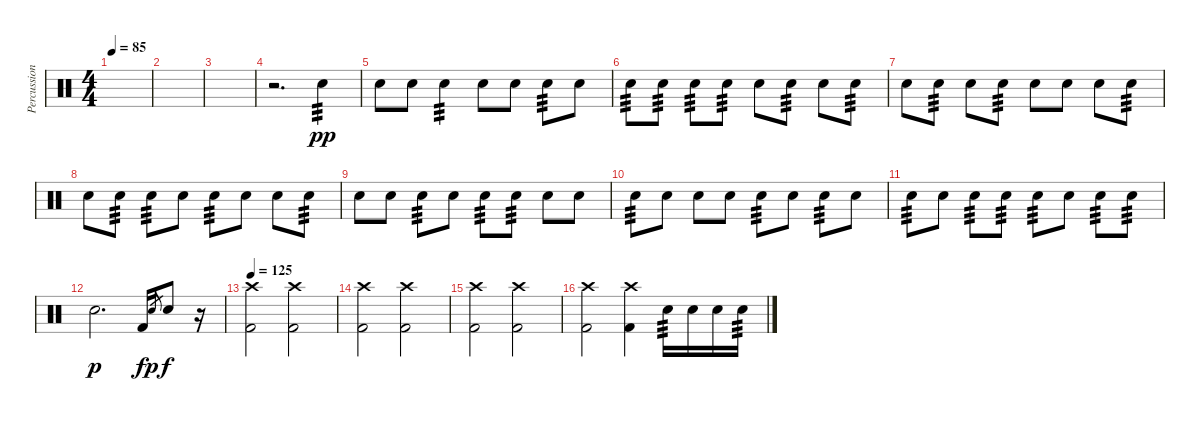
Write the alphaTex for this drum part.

\track ("Percussion" "Percussion") {instrument percussion}
\staff {score}
\articulation defaults
\ts (4 4)
\tempo 85
\clef neutral
\ks c
|
|
|
r.2{d} "Electric Snare (hit)".4{tp 3 dy pp} |
"Electric Snare (hit)".8 "Electric Snare (hit)".8 "Electric Snare (hit)".4{tp 3} "Electric Snare (hit)".8 "Electric Snare (hit)".8 "Electric Snare (hit)".8{tp 3} "Electric Snare (hit)".8 |
"Electric Snare (hit)".8{tp 3} "Electric Snare (hit)".8{tp 3} "Electric Snare (hit)".8{tp 3} "Electric Snare (hit)".8{tp 3} "Electric Snare (hit)".8 "Electric Snare (hit)".8{tp 3} "Electric Snare (hit)".8 "Electric Snare (hit)".8{tp 3} |
"Electric Snare (hit)".8 "Electric Snare (hit)".8{tp 3} "Electric Snare (hit)".8 "Electric Snare (hit)".8{tp 3} "Electric Snare (hit)".8 "Electric Snare (hit)".8 "Electric Snare (hit)".8 "Electric Snare (hit)".8{tp 3} |
"Electric Snare (hit)".8 "Electric Snare (hit)".8{tp 3} "Electric Snare (hit)".8{tp 3} "Electric Snare (hit)".8 "Electric Snare (hit)".8{tp 3} "Electric Snare (hit)".8 "Electric Snare (hit)".8 "Electric Snare (hit)".8{tp 3} |
"Electric Snare (hit)".8 "Electric Snare (hit)".8 "Electric Snare (hit)".8{tp 3} "Electric Snare (hit)".8 "Electric Snare (hit)".8{tp 3} "Electric Snare (hit)".8{tp 3} "Electric Snare (hit)".8 "Electric Snare (hit)".8 |
"Electric Snare (hit)".8{tp 3} "Electric Snare (hit)".8 "Electric Snare (hit)".8 "Electric Snare (hit)".8 "Electric Snare (hit)".8{tp 3} "Electric Snare (hit)".8 "Electric Snare (hit)".8{tp 3} "Electric Snare (hit)".8 |
"Electric Snare (hit)".8{tp 3} "Electric Snare (hit)".8 "Electric Snare (hit)".8{tp 3} "Electric Snare (hit)".8{tp 3} "Electric Snare (hit)".8{tp 3} "Electric Snare (hit)".8 "Electric Snare (hit)".8{tp 3} "Electric Snare (hit)".8{tp 3} |
"Electric Snare (hit)".2{d dy p} "Kick (hit) 2".16{dy f} "Electric Snare (hit)".8{gr dy p} "Electric Snare (hit)".8{dy f} r.16 |
\tempo 125
("Crash high (hit)" "Kick (hit) 2").2 ("Crash high (hit)" "Kick (hit) 2").2 |
("Crash high (hit)" "Kick (hit) 2").2 ("Crash high (hit)" "Kick (hit) 2").2 |
("Crash high (hit)" "Kick (hit) 2").2 ("Crash high (hit)" "Kick (hit) 2").2 |
("Crash high (hit)" "Kick (hit) 2").2 ("Crash high (hit)" "Kick (hit) 2").4 "Electric Snare (hit)".16{tp 3} "Electric Snare (hit)".16 "Electric Snare (hit)".16 "Electric Snare (hit)".16{tp 3}
